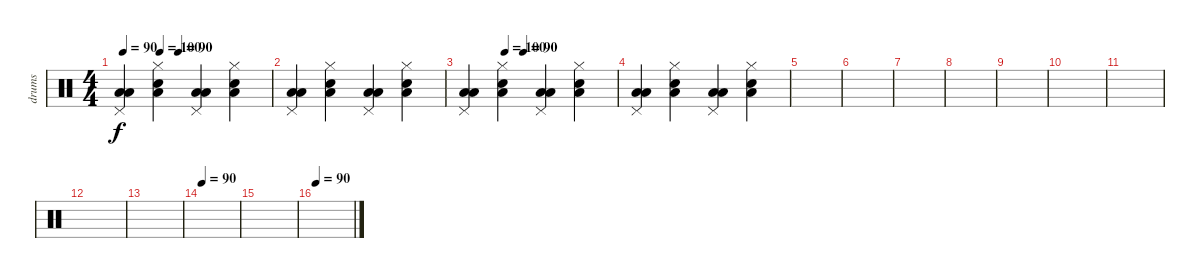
\track ("drums" "drums") {instrument percussion}
\staff {score}
\articulation defaults
\ts (4 4)
\tempo 90
\tempo (100 0.25)
\tempo (90 0.375)
\clef neutral
\ks c
("Pedal Hi-Hat (hit)" "Low Floor Tom (hit)" "Low Floor Tom (hit)").4{dy f} ("Hi-Hat (closed)" "Snare (hit) 2" "Low Floor Tom (hit)").4 ("Pedal Hi-Hat (hit)" "Low Floor Tom (hit)" "Low Floor Tom (hit)").4 ("Hi-Hat (closed)" "Snare (hit) 2" "Low Floor Tom (hit)").4 |
("Pedal Hi-Hat (hit)" "Low Floor Tom (hit)" "Low Floor Tom (hit)").4 ("Hi-Hat (closed)" "Snare (hit) 2" "Low Floor Tom (hit)").4 ("Pedal Hi-Hat (hit)" "Low Floor Tom (hit)" "Low Floor Tom (hit)").4 ("Hi-Hat (closed)" "Snare (hit) 2" "Low Floor Tom (hit)").4 |
\tempo (100 0.25)
\tempo (90 0.375)
("Pedal Hi-Hat (hit)" "Low Floor Tom (hit)" "Low Floor Tom (hit)").4 ("Hi-Hat (closed)" "Snare (hit) 2" "Low Floor Tom (hit)").4 ("Pedal Hi-Hat (hit)" "Low Floor Tom (hit)" "Low Floor Tom (hit)").4 ("Hi-Hat (closed)" "Snare (hit) 2" "Low Floor Tom (hit)").4 |
("Pedal Hi-Hat (hit)" "Low Floor Tom (hit)" "Low Floor Tom (hit)").4 ("Hi-Hat (closed)" "Snare (hit) 2" "Low Floor Tom (hit)").4 ("Pedal Hi-Hat (hit)" "Low Floor Tom (hit)" "Low Floor Tom (hit)").4 ("Hi-Hat (closed)" "Snare (hit) 2" "Low Floor Tom (hit)").4 |
|
|
|
|
|
|
|
|
|
\tempo 90
|
|
\tempo 90
